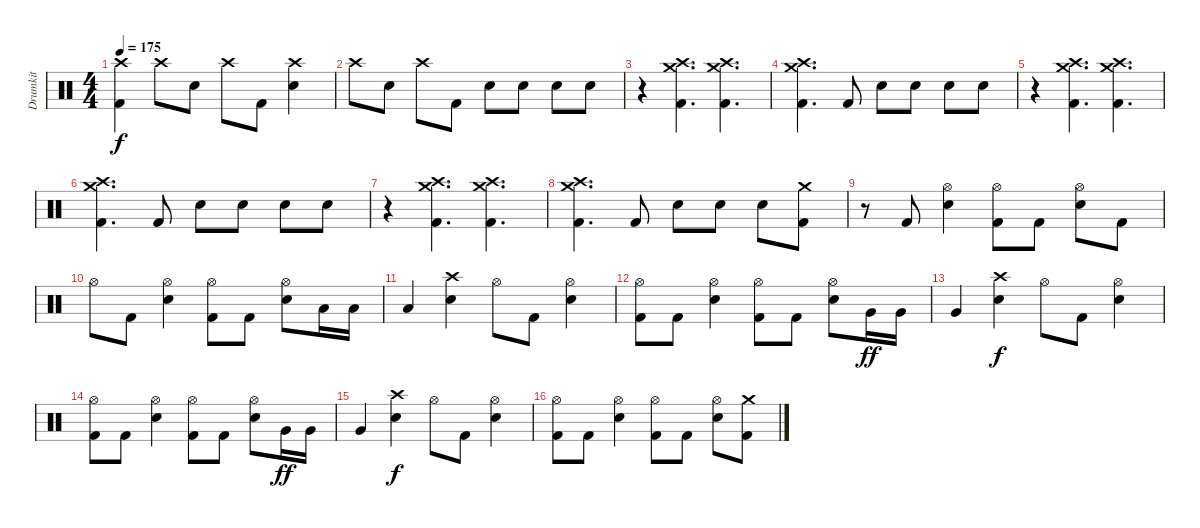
\track ("Drumkit" "Drumkit") {instrument percussion}
\staff {score}
\articulation defaults
\ts (4 4)
\tempo 175
\clef neutral
\ks c
("Crash high (hit)" "Kick (hit) 2").4{dy f} "Crash high (hit)".8 "Electric Snare (hit)".8 "Crash high (hit)".8 "Kick (hit) 2".8 ("Crash high (hit)" "Electric Snare (hit)").4 |
"Crash high (hit)".8 "Electric Snare (hit)".8 "Crash high (hit)".8 "Kick (hit) 2".8 "Electric Snare (hit)".8 "Electric Snare (hit)".8 "Electric Snare (hit)".8 "Electric Snare (hit)".8 |
r.4 ("Crash high (hit)" "Crash medium (hit)" "Kick (hit) 2").4{d} ("Crash high (hit)" "Crash medium (hit)" "Kick (hit) 2").4{d} |
("Crash high (hit)" "Crash medium (hit)" "Kick (hit) 2").4{d} "Kick (hit) 2".8 "Electric Snare (hit)".8 "Electric Snare (hit)".8 "Electric Snare (hit)".8 "Electric Snare (hit)".8 |
r.4 ("Crash high (hit)" "Crash medium (hit)" "Kick (hit) 2").4{d} ("Crash high (hit)" "Crash medium (hit)" "Kick (hit) 2").4{d} |
("Crash high (hit)" "Crash medium (hit)" "Kick (hit) 2").4{d} "Kick (hit) 2".8 "Electric Snare (hit)".8 "Electric Snare (hit)".8 "Electric Snare (hit)".8 "Electric Snare (hit)".8 |
r.4 ("Crash high (hit)" "Crash medium (hit)" "Kick (hit) 2").4{d} ("Crash high (hit)" "Crash medium (hit)" "Kick (hit) 2").4{d} |
("Crash high (hit)" "Crash medium (hit)" "Kick (hit) 2").4{d} "Kick (hit) 2".8 "Electric Snare (hit)".8 "Electric Snare (hit)".8 "Electric Snare (hit)".8 ("Crash medium (hit)" "Kick (hit) 2").8 |
r.8 "Kick (hit) 2".8 ("Hi-Hat (open)" "Electric Snare (hit)").4 ("Hi-Hat (open)" "Kick (hit) 2").8 "Kick (hit) 2".8 ("Hi-Hat (open)" "Electric Snare (hit)").8 "Kick (hit) 2".8 |
"Hi-Hat (open)".8 "Kick (hit) 2".8 ("Hi-Hat (open)" "Electric Snare (hit)").4 ("Hi-Hat (open)" "Kick (hit) 2").8 "Kick (hit) 2".8 ("Hi-Hat (open)" "Electric Snare (hit)").8 "Low Tom (hit)".16 "Low Tom (hit)".16 |
"Low Tom (hit)".4 ("Crash high (hit)" "Electric Snare (hit)").4 "Hi-Hat (open)".8 "Kick (hit) 2".8 ("Hi-Hat (open)" "Electric Snare (hit)").4 |
("Hi-Hat (open)" "Kick (hit) 2").8 "Kick (hit) 2".8 ("Hi-Hat (open)" "Electric Snare (hit)").4 ("Hi-Hat (open)" "Kick (hit) 2").8 "Kick (hit) 2".8 ("Hi-Hat (open)" "Electric Snare (hit)").8 "Very Low Tom (hit)".16{dy ff} "Very Low Tom (hit)".16 |
"Very Low Tom (hit)".4 ("Crash high (hit)" "Electric Snare (hit)").4{dy f} "Hi-Hat (open)".8 "Kick (hit) 2".8 ("Hi-Hat (open)" "Electric Snare (hit)").4 |
("Hi-Hat (open)" "Kick (hit) 2").8 "Kick (hit) 2".8 ("Hi-Hat (open)" "Electric Snare (hit)").4 ("Hi-Hat (open)" "Kick (hit) 2").8 "Kick (hit) 2".8 ("Hi-Hat (open)" "Electric Snare (hit)").8 "Very Low Tom (hit)".16{dy ff} "Very Low Tom (hit)".16 |
"Very Low Tom (hit)".4 ("Crash high (hit)" "Electric Snare (hit)").4{dy f} "Hi-Hat (open)".8 "Kick (hit) 2".8 ("Hi-Hat (open)" "Electric Snare (hit)").4 |
("Hi-Hat (open)" "Kick (hit) 2").8 "Kick (hit) 2".8 ("Hi-Hat (open)" "Electric Snare (hit)").4 ("Hi-Hat (open)" "Kick (hit) 2").8 "Kick (hit) 2".8 ("Hi-Hat (open)" "Electric Snare (hit)").8 ("Crash medium (hit)" "Kick (hit) 2").8
